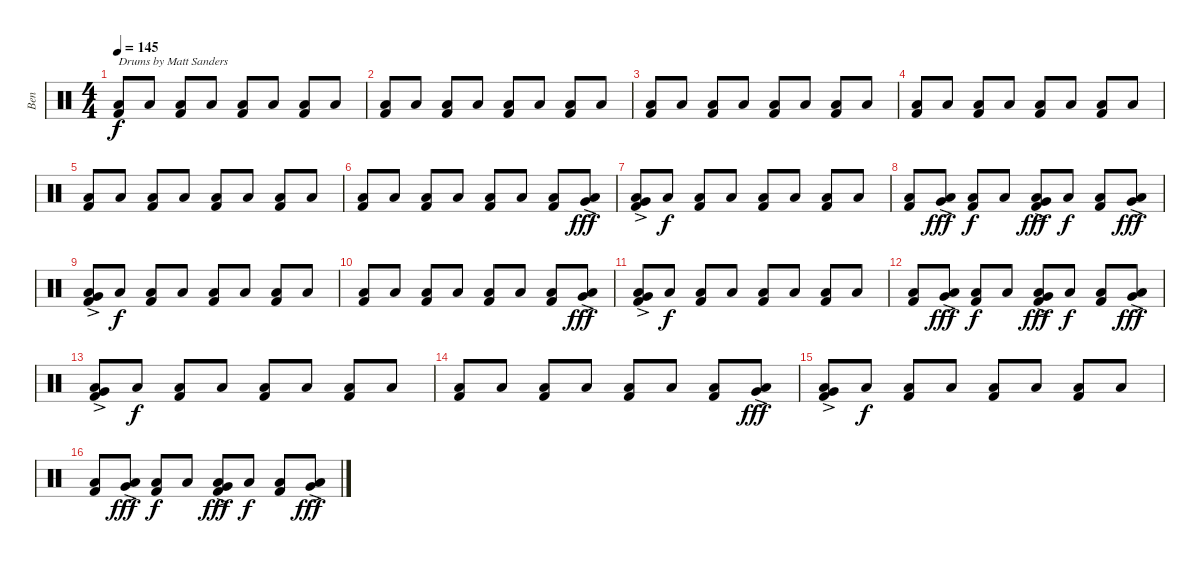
\track ("Ben" "Ben") {instrument percussion}
\staff {score}
\articulation defaults
\ts (4 4)
\tempo 145
\clef neutral
\ks c
("Low Floor Tom (hit)" "Kick (hit) 2").8{txt "Drums by Matt Sanders" dy f} "Low Floor Tom (hit)".8 ("Low Floor Tom (hit)" "Kick (hit) 2").8 "Low Floor Tom (hit)".8 ("Low Floor Tom (hit)" "Kick (hit) 2").8 "Low Floor Tom (hit)".8 ("Low Floor Tom (hit)" "Kick (hit) 2").8 "Low Floor Tom (hit)".8 |
("Low Floor Tom (hit)" "Kick (hit) 2").8 "Low Floor Tom (hit)".8 ("Low Floor Tom (hit)" "Kick (hit) 2").8 "Low Floor Tom (hit)".8 ("Low Floor Tom (hit)" "Kick (hit) 2").8 "Low Floor Tom (hit)".8 ("Low Floor Tom (hit)" "Kick (hit) 2").8 "Low Floor Tom (hit)".8 |
("Low Floor Tom (hit)" "Kick (hit) 2").8 "Low Floor Tom (hit)".8 ("Low Floor Tom (hit)" "Kick (hit) 2").8 "Low Floor Tom (hit)".8 ("Low Floor Tom (hit)" "Kick (hit) 2").8 "Low Floor Tom (hit)".8 ("Low Floor Tom (hit)" "Kick (hit) 2").8 "Low Floor Tom (hit)".8 |
("Low Floor Tom (hit)" "Kick (hit) 2").8 "Low Floor Tom (hit)".8 ("Low Floor Tom (hit)" "Kick (hit) 2").8 "Low Floor Tom (hit)".8 ("Low Floor Tom (hit)" "Kick (hit) 2").8 "Low Floor Tom (hit)".8 ("Low Floor Tom (hit)" "Kick (hit) 2").8 "Low Floor Tom (hit)".8 |
("Low Floor Tom (hit)" "Kick (hit) 2").8 "Low Floor Tom (hit)".8 ("Low Floor Tom (hit)" "Kick (hit) 2").8 "Low Floor Tom (hit)".8 ("Low Floor Tom (hit)" "Kick (hit) 2").8 "Low Floor Tom (hit)".8 ("Low Floor Tom (hit)" "Kick (hit) 2").8 "Low Floor Tom (hit)".8 |
("Low Floor Tom (hit)" "Kick (hit) 2").8 "Low Floor Tom (hit)".8 ("Low Floor Tom (hit)" "Kick (hit) 2").8 "Low Floor Tom (hit)".8 ("Low Floor Tom (hit)" "Kick (hit) 2").8 "Low Floor Tom (hit)".8 ("Low Floor Tom (hit)" "Kick (hit) 2").8 ("Very Low Tom (hit)"{ac} "Low Floor Tom (hit)"{ac}).8{dy fff} |
("Very Low Tom (hit)"{ac} "Low Floor Tom (hit)"{ac} "Kick (hit) 2"{ac}).8 "Low Floor Tom (hit)".8{dy f} ("Low Floor Tom (hit)" "Kick (hit) 2").8 "Low Floor Tom (hit)".8 ("Low Floor Tom (hit)" "Kick (hit) 2").8 "Low Floor Tom (hit)".8 ("Low Floor Tom (hit)" "Kick (hit) 2").8 "Low Floor Tom (hit)".8 |
("Low Floor Tom (hit)" "Kick (hit) 2").8 ("Very Low Tom (hit)"{ac} "Low Floor Tom (hit)"{ac}).8{dy fff} ("Low Floor Tom (hit)" "Kick (hit) 2").8{dy f} "Low Floor Tom (hit)".8 ("Very Low Tom (hit)"{ac} "Low Floor Tom (hit)"{ac} "Kick (hit) 2"{ac}).8{dy fff} "Low Floor Tom (hit)".8{dy f} ("Low Floor Tom (hit)" "Kick (hit) 2").8 ("Very Low Tom (hit)"{ac} "Low Floor Tom (hit)"{ac}).8{dy fff} |
("Very Low Tom (hit)"{ac} "Low Floor Tom (hit)"{ac} "Kick (hit) 2"{ac}).8 "Low Floor Tom (hit)".8{dy f} ("Low Floor Tom (hit)" "Kick (hit) 2").8 "Low Floor Tom (hit)".8 ("Low Floor Tom (hit)" "Kick (hit) 2").8 "Low Floor Tom (hit)".8 ("Low Floor Tom (hit)" "Kick (hit) 2").8 "Low Floor Tom (hit)".8 |
("Low Floor Tom (hit)" "Kick (hit) 2").8 "Low Floor Tom (hit)".8 ("Low Floor Tom (hit)" "Kick (hit) 2").8 "Low Floor Tom (hit)".8 ("Low Floor Tom (hit)" "Kick (hit) 2").8 "Low Floor Tom (hit)".8 ("Low Floor Tom (hit)" "Kick (hit) 2").8 ("Very Low Tom (hit)"{ac} "Low Floor Tom (hit)"{ac}).8{dy fff} |
("Very Low Tom (hit)"{ac} "Low Floor Tom (hit)"{ac} "Kick (hit) 2"{ac}).8 "Low Floor Tom (hit)".8{dy f} ("Low Floor Tom (hit)" "Kick (hit) 2").8 "Low Floor Tom (hit)".8 ("Low Floor Tom (hit)" "Kick (hit) 2").8 "Low Floor Tom (hit)".8 ("Low Floor Tom (hit)" "Kick (hit) 2").8 "Low Floor Tom (hit)".8 |
("Low Floor Tom (hit)" "Kick (hit) 2").8 ("Very Low Tom (hit)"{ac} "Low Floor Tom (hit)"{ac}).8{dy fff} ("Low Floor Tom (hit)" "Kick (hit) 2").8{dy f} "Low Floor Tom (hit)".8 ("Very Low Tom (hit)" "Low Floor Tom (hit)"{ac} "Kick (hit) 2"{ac}).8{dy fff} "Low Floor Tom (hit)".8{dy f} ("Low Floor Tom (hit)" "Kick (hit) 2").8 ("Very Low Tom (hit)"{ac} "Low Floor Tom (hit)"{ac}).8{dy fff} |
("Very Low Tom (hit)"{ac} "Low Floor Tom (hit)"{ac} "Kick (hit) 2"{ac}).8 "Low Floor Tom (hit)".8{dy f} ("Low Floor Tom (hit)" "Kick (hit) 2").8 "Low Floor Tom (hit)".8 ("Low Floor Tom (hit)" "Kick (hit) 2").8 "Low Floor Tom (hit)".8 ("Low Floor Tom (hit)" "Kick (hit) 2").8 "Low Floor Tom (hit)".8 |
("Low Floor Tom (hit)" "Kick (hit) 2").8 "Low Floor Tom (hit)".8 ("Low Floor Tom (hit)" "Kick (hit) 2").8 "Low Floor Tom (hit)".8 ("Low Floor Tom (hit)" "Kick (hit) 2").8 "Low Floor Tom (hit)".8 ("Low Floor Tom (hit)" "Kick (hit) 2").8 ("Very Low Tom (hit)"{ac} "Low Floor Tom (hit)"{ac}).8{dy fff} |
("Very Low Tom (hit)"{ac} "Low Floor Tom (hit)"{ac} "Kick (hit) 2"{ac}).8 "Low Floor Tom (hit)".8{dy f} ("Low Floor Tom (hit)" "Kick (hit) 2").8 "Low Floor Tom (hit)".8 ("Low Floor Tom (hit)" "Kick (hit) 2").8 "Low Floor Tom (hit)".8 ("Low Floor Tom (hit)" "Kick (hit) 2").8 "Low Floor Tom (hit)".8 |
("Low Floor Tom (hit)" "Kick (hit) 2").8 ("Very Low Tom (hit)"{ac} "Low Floor Tom (hit)"{ac}).8{dy fff} ("Low Floor Tom (hit)" "Kick (hit) 2").8{dy f} "Low Floor Tom (hit)".8 ("Very Low Tom (hit)" "Low Floor Tom (hit)"{ac} "Kick (hit) 2"{ac}).8{dy fff} "Low Floor Tom (hit)".8{dy f} ("Low Floor Tom (hit)" "Kick (hit) 2").8 ("Very Low Tom (hit)"{ac} "Low Floor Tom (hit)"{ac}).8{dy fff}
